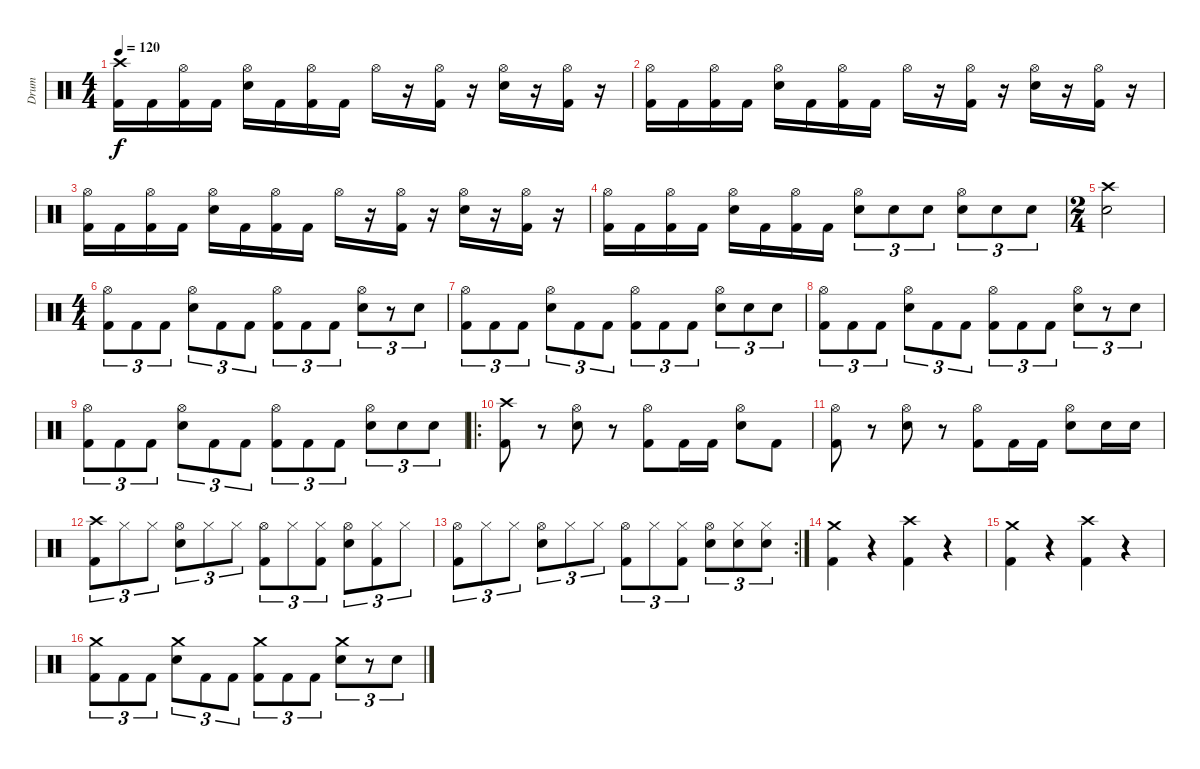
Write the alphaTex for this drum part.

\track ("Drum" "Drum") {instrument percussion}
\staff {score}
\articulation defaults
\ts (4 4)
\tempo 120
\clef neutral
\ks c
("Crash high (hit)" "Kick (hit) 2").16{dy f} "Kick (hit) 2".16 ("Hi-Hat (open)" "Kick (hit) 2").16 "Kick (hit) 2".16 ("Hi-Hat (open)" "Electric Snare (hit)").16 "Kick (hit) 2".16 ("Hi-Hat (open)" "Kick (hit) 2").16 "Kick (hit) 2".16 "Hi-Hat (open)".16 r.16 ("Hi-Hat (open)" "Kick (hit) 2").16 r.16 ("Hi-Hat (open)" "Electric Snare (hit)").16 r.16 ("Hi-Hat (open)" "Kick (hit) 2").16 r.16 |
("Hi-Hat (open)" "Kick (hit) 2").16 "Kick (hit) 2".16 ("Hi-Hat (open)" "Kick (hit) 2").16 "Kick (hit) 2".16 ("Hi-Hat (open)" "Electric Snare (hit)").16 "Kick (hit) 2".16 ("Hi-Hat (open)" "Kick (hit) 2").16 "Kick (hit) 2".16 "Hi-Hat (open)".16 r.16 ("Hi-Hat (open)" "Kick (hit) 2").16 r.16 ("Hi-Hat (open)" "Electric Snare (hit)").16 r.16 ("Hi-Hat (open)" "Kick (hit) 2").16 r.16 |
("Hi-Hat (open)" "Kick (hit) 2").16 "Kick (hit) 2".16 ("Hi-Hat (open)" "Kick (hit) 2").16 "Kick (hit) 2".16 ("Hi-Hat (open)" "Electric Snare (hit)").16 "Kick (hit) 2".16 ("Hi-Hat (open)" "Kick (hit) 2").16 "Kick (hit) 2".16 "Hi-Hat (open)".16 r.16 ("Hi-Hat (open)" "Kick (hit) 2").16 r.16 ("Hi-Hat (open)" "Electric Snare (hit)").16 r.16 ("Hi-Hat (open)" "Kick (hit) 2").16 r.16 |
("Hi-Hat (open)" "Kick (hit) 2").16 "Kick (hit) 2".16 ("Hi-Hat (open)" "Kick (hit) 2").16 "Kick (hit) 2".16 ("Hi-Hat (open)" "Electric Snare (hit)").16 "Kick (hit) 2".16 ("Hi-Hat (open)" "Kick (hit) 2").16 "Kick (hit) 2".16 ("Hi-Hat (open)" "Electric Snare (hit)").8{tu (3 2)} "Electric Snare (hit)".8{tu (3 2)} "Electric Snare (hit)".8{tu (3 2)} ("Hi-Hat (open)" "Electric Snare (hit)").8{tu (3 2)} "Electric Snare (hit)".8{tu (3 2)} "Electric Snare (hit)".8{tu (3 2)} |
\ts (2 4)
("Crash high (hit)" "Electric Snare (hit)").2 |
\ts (4 4)
("Hi-Hat (open)" "Kick (hit) 2").8{tu (3 2)} "Kick (hit) 2".8{tu (3 2)} "Kick (hit) 2".8{tu (3 2)} ("Hi-Hat (open)" "Electric Snare (hit)").8{tu (3 2)} "Kick (hit) 2".8{tu (3 2)} "Kick (hit) 2".8{tu (3 2)} ("Hi-Hat (open)" "Kick (hit) 2").8{tu (3 2)} "Kick (hit) 2".8{tu (3 2)} "Kick (hit) 2".8{tu (3 2)} ("Hi-Hat (open)" "Electric Snare (hit)").8{tu (3 2)} r.8{tu (3 2)} "Electric Snare (hit)".8{tu (3 2)} |
("Hi-Hat (open)" "Kick (hit) 2").8{tu (3 2)} "Kick (hit) 2".8{tu (3 2)} "Kick (hit) 2".8{tu (3 2)} ("Hi-Hat (open)" "Electric Snare (hit)").8{tu (3 2)} "Kick (hit) 2".8{tu (3 2)} "Kick (hit) 2".8{tu (3 2)} ("Hi-Hat (open)" "Kick (hit) 2").8{tu (3 2)} "Kick (hit) 2".8{tu (3 2)} "Kick (hit) 2".8{tu (3 2)} ("Hi-Hat (open)" "Electric Snare (hit)").8{tu (3 2)} "Electric Snare (hit)".8{tu (3 2)} "Electric Snare (hit)".8{tu (3 2)} |
("Hi-Hat (open)" "Kick (hit) 2").8{tu (3 2)} "Kick (hit) 2".8{tu (3 2)} "Kick (hit) 2".8{tu (3 2)} ("Hi-Hat (open)" "Electric Snare (hit)").8{tu (3 2)} "Kick (hit) 2".8{tu (3 2)} "Kick (hit) 2".8{tu (3 2)} ("Hi-Hat (open)" "Kick (hit) 2").8{tu (3 2)} "Kick (hit) 2".8{tu (3 2)} "Kick (hit) 2".8{tu (3 2)} ("Hi-Hat (open)" "Electric Snare (hit)").8{tu (3 2)} r.8{tu (3 2)} "Electric Snare (hit)".8{tu (3 2)} |
("Hi-Hat (open)" "Kick (hit) 2").8{tu (3 2)} "Kick (hit) 2".8{tu (3 2)} "Kick (hit) 2".8{tu (3 2)} ("Hi-Hat (open)" "Electric Snare (hit)").8{tu (3 2)} "Kick (hit) 2".8{tu (3 2)} "Kick (hit) 2".8{tu (3 2)} ("Hi-Hat (open)" "Kick (hit) 2").8{tu (3 2)} "Kick (hit) 2".8{tu (3 2)} "Kick (hit) 2".8{tu (3 2)} ("Hi-Hat (open)" "Electric Snare (hit)").8{tu (3 2)} "Electric Snare (hit)".8{tu (3 2)} "Electric Snare (hit)".8{tu (3 2)} |
\ro
("Crash high (hit)" "Kick (hit) 2").8 r.8 ("Hi-Hat (open)" "Electric Snare (hit)").8 r.8 ("Hi-Hat (open)" "Kick (hit) 2").8 "Kick (hit) 2".16 "Kick (hit) 2".16 ("Hi-Hat (open)" "Electric Snare (hit)").8 "Kick (hit) 2".8 |
("Hi-Hat (open)" "Kick (hit) 2").8 r.8 ("Hi-Hat (open)" "Electric Snare (hit)").8 r.8 ("Hi-Hat (open)" "Kick (hit) 2").8 "Kick (hit) 2".16 "Kick (hit) 2".16 ("Hi-Hat (open)" "Electric Snare (hit)").8 "Electric Snare (hit)".16 "Electric Snare (hit)".16 |
("Crash high (hit)" "Kick (hit) 2").8{tu (3 2)} "Hi-Hat (closed)".8{tu (3 2)} "Hi-Hat (closed)".8{tu (3 2)} ("Hi-Hat (open)" "Electric Snare (hit)").8{tu (3 2)} "Hi-Hat (closed)".8{tu (3 2)} "Hi-Hat (closed)".8{tu (3 2)} ("Hi-Hat (open)" "Kick (hit) 2").8{tu (3 2)} "Hi-Hat (closed)".8{tu (3 2)} ("Hi-Hat (closed)" "Kick (hit) 2").8{tu (3 2)} ("Hi-Hat (open)" "Electric Snare (hit)").8{tu (3 2)} ("Hi-Hat (closed)" "Kick (hit) 2").8{tu (3 2)} "Hi-Hat (closed)".8{tu (3 2)} |
\rc 2
("Hi-Hat (open)" "Kick (hit) 2").8{tu (3 2)} "Hi-Hat (closed)".8{tu (3 2)} "Hi-Hat (closed)".8{tu (3 2)} ("Hi-Hat (open)" "Electric Snare (hit)").8{tu (3 2)} "Hi-Hat (closed)".8{tu (3 2)} "Hi-Hat (closed)".8{tu (3 2)} ("Hi-Hat (open)" "Kick (hit) 2").8{tu (3 2)} "Hi-Hat (closed)".8{tu (3 2)} ("Hi-Hat (closed)" "Kick (hit) 2").8{tu (3 2)} ("Hi-Hat (open)" "Electric Snare (hit)").8{tu (3 2)} ("Hi-Hat (closed)" "Electric Snare (hit)").8{tu (3 2)} ("Hi-Hat (closed)" "Electric Snare (hit)").8{tu (3 2)} |
("Crash medium (hit)" "Kick (hit) 2").4 r.4 ("Crash high (hit)" "Kick (hit) 2").4 r.4 |
("Crash medium (hit)" "Kick (hit) 2").4 r.4 ("Crash high (hit)" "Kick (hit) 2").4 r.4 |
("Crash medium (hit)" "Kick (hit) 2").8{tu (3 2)} "Kick (hit) 2".8{tu (3 2)} "Kick (hit) 2".8{tu (3 2)} ("Crash medium (hit)" "Electric Snare (hit)").8{tu (3 2)} "Kick (hit) 2".8{tu (3 2)} "Kick (hit) 2".8{tu (3 2)} ("Crash medium (hit)" "Kick (hit) 2").8{tu (3 2)} "Kick (hit) 2".8{tu (3 2)} "Kick (hit) 2".8{tu (3 2)} ("Crash medium (hit)" "Electric Snare (hit)").8{tu (3 2)} r.8{tu (3 2)} "Electric Snare (hit)".8{tu (3 2)}
